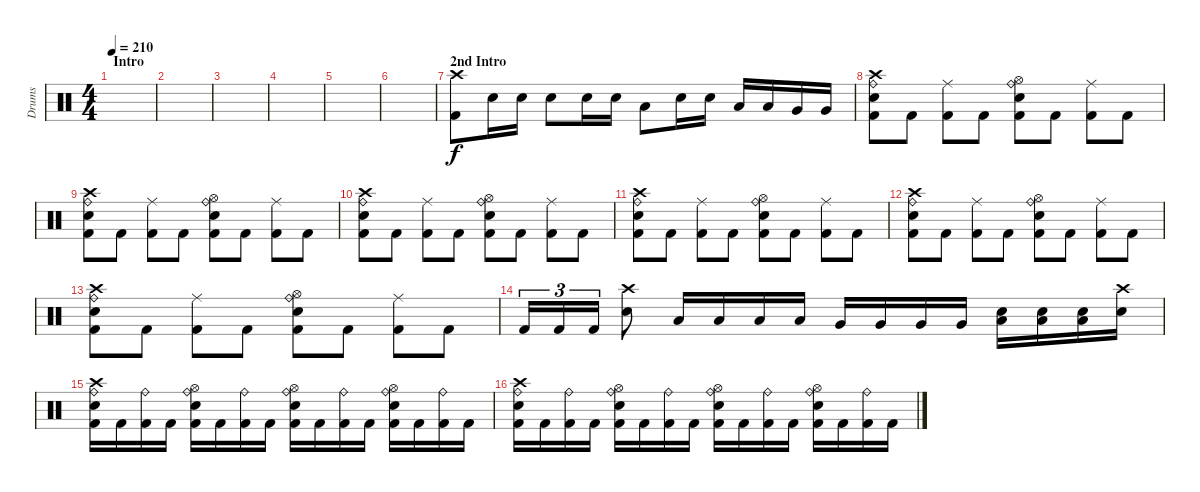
\track ("Drums" "Drums") {instrument percussion}
\staff {score}
\articulation defaults
\ts (4 4)
\section ("" "Intro")
\tempo 210
\clef neutral
\ks c
|
|
|
|
|
|
\section ("" "2nd Intro")
("Crash high (hit)" "Kick (hit) 2").8 "Electric Snare (hit)".16 "Electric Snare (hit)".16 "Electric Snare (hit)".8 "Electric Snare (hit)".16 "Electric Snare (hit)".16 "Low Tom (hit)".8 "Electric Snare (hit)".16 "Electric Snare (hit)".16 "Low Tom (hit)".16 "Low Tom (hit)".16 "Very Low Tom (hit)".16 "Very Low Tom (hit)".16 |
("Kick (hit) 2" "Crash high (hit)" "Ride (bell)" "Electric Snare (hit)").8 "Kick (hit) 2".8 ("Kick (hit) 2" "Ride (middle)").8 "Kick (hit) 2".8 ("Kick (hit) 2" "Electric Snare (hit)" "Ride (bell)" "Hi-Hat (open)").8 "Kick (hit) 2".8 ("Kick (hit) 2" "Ride (middle)").8 "Kick (hit) 2".8 |
("Kick (hit) 2" "Crash high (hit)" "Ride (bell)" "Electric Snare (hit)").8 "Kick (hit) 2".8 ("Kick (hit) 2" "Ride (middle)").8 "Kick (hit) 2".8 ("Kick (hit) 2" "Electric Snare (hit)" "Ride (bell)" "Hi-Hat (open)").8 "Kick (hit) 2".8 ("Kick (hit) 2" "Ride (middle)").8 "Kick (hit) 2".8 |
("Kick (hit) 2" "Crash high (hit)" "Ride (bell)" "Electric Snare (hit)").8 "Kick (hit) 2".8 ("Kick (hit) 2" "Ride (middle)").8 "Kick (hit) 2".8 ("Kick (hit) 2" "Electric Snare (hit)" "Ride (bell)" "Hi-Hat (open)").8 "Kick (hit) 2".8 ("Kick (hit) 2" "Ride (middle)").8 "Kick (hit) 2".8 |
("Kick (hit) 2" "Crash high (hit)" "Ride (bell)" "Electric Snare (hit)").8 "Kick (hit) 2".8 ("Kick (hit) 2" "Ride (middle)").8 "Kick (hit) 2".8 ("Kick (hit) 2" "Electric Snare (hit)" "Ride (bell)" "Hi-Hat (open)").8 "Kick (hit) 2".8 ("Kick (hit) 2" "Ride (middle)").8 "Kick (hit) 2".8 |
("Kick (hit) 2" "Crash high (hit)" "Ride (bell)" "Electric Snare (hit)").8 "Kick (hit) 2".8 ("Kick (hit) 2" "Ride (middle)").8 "Kick (hit) 2".8 ("Kick (hit) 2" "Electric Snare (hit)" "Ride (bell)" "Hi-Hat (open)").8 "Kick (hit) 2".8 ("Kick (hit) 2" "Ride (middle)").8 "Kick (hit) 2".8 |
("Kick (hit) 2" "Crash high (hit)" "Ride (bell)" "Electric Snare (hit)").8 "Kick (hit) 2".8 ("Kick (hit) 2" "Ride (middle)").8 "Kick (hit) 2".8 ("Kick (hit) 2" "Electric Snare (hit)" "Ride (bell)" "Hi-Hat (open)").8 "Kick (hit) 2".8 ("Kick (hit) 2" "Ride (middle)").8 "Kick (hit) 2".8 |
"Kick (hit) 2".16{tu (3 2)} "Kick (hit) 2".16{tu (3 2)} "Kick (hit) 2".16{tu (3 2)} ("Electric Snare (hit)" "Crash high (hit)").8 "Low Tom (hit)".16 "Low Tom (hit)".16 "Low Tom (hit)".16 "Low Tom (hit)".16 "Very Low Tom (hit)".16 "Very Low Tom (hit)".16 "Very Low Tom (hit)".16 "Very Low Tom (hit)".16 ("Low Floor Tom (hit)" "Electric Snare (hit)").16 ("Low Floor Tom (hit)" "Electric Snare (hit)").16 ("Low Floor Tom (hit)" "Electric Snare (hit)").16 ("Crash high (hit)" "Electric Snare (hit)").16 |
("Kick (hit) 2" "Electric Snare (hit)" "Ride (bell)" "Crash high (hit)").16 "Kick (hit) 2".16 ("Kick (hit) 2" "Ride (bell)").16 "Kick (hit) 2".16 ("Kick (hit) 2" "Electric Snare (hit)" "Ride (bell)" "Hi-Hat (open)").16 "Kick (hit) 2".16 ("Kick (hit) 2" "Ride (bell)").16 "Kick (hit) 2".16 ("Kick (hit) 2" "Electric Snare (hit)" "Ride (bell)" "Hi-Hat (open)").16 "Kick (hit) 2".16 ("Kick (hit) 2" "Ride (bell)").16 "Kick (hit) 2".16 ("Kick (hit) 2" "Electric Snare (hit)" "Ride (bell)" "Hi-Hat (open)").16 "Kick (hit) 2".16 ("Kick (hit) 2" "Ride (bell)").16 "Kick (hit) 2".16 |
("Kick (hit) 2" "Electric Snare (hit)" "Ride (bell)" "Crash high (hit)").16 "Kick (hit) 2".16 ("Kick (hit) 2" "Ride (bell)").16 "Kick (hit) 2".16 ("Kick (hit) 2" "Electric Snare (hit)" "Ride (bell)" "Hi-Hat (open)").16 "Kick (hit) 2".16 ("Kick (hit) 2" "Ride (bell)").16 "Kick (hit) 2".16 ("Kick (hit) 2" "Electric Snare (hit)" "Ride (bell)" "Hi-Hat (open)").16 "Kick (hit) 2".16 ("Kick (hit) 2" "Ride (bell)").16 "Kick (hit) 2".16 ("Kick (hit) 2" "Electric Snare (hit)" "Ride (bell)" "Hi-Hat (open)").16 "Kick (hit) 2".16 ("Kick (hit) 2" "Ride (bell)").16 "Kick (hit) 2".16
